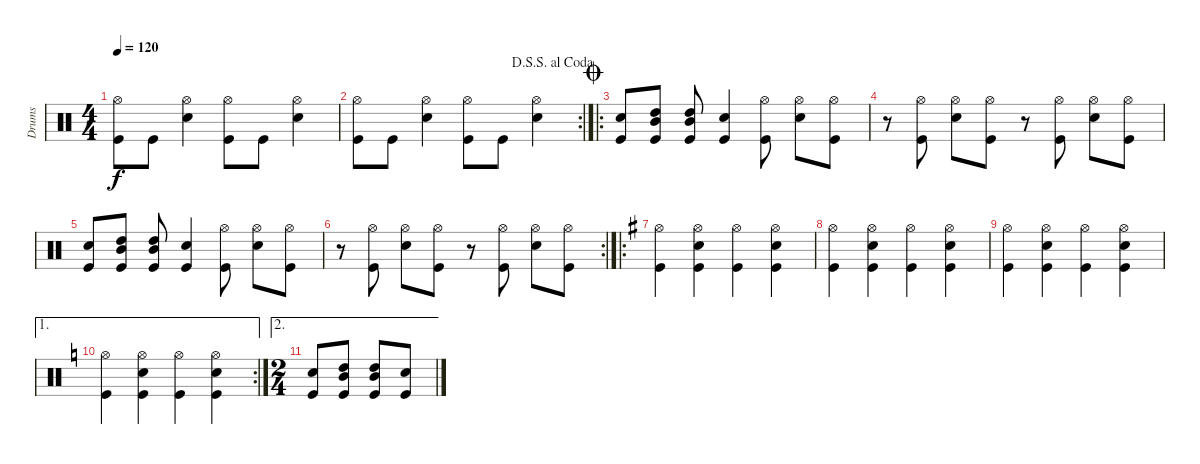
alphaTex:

\track ("Drums" "Drums") {instrument percussion}
\staff {score}
\articulation defaults
\ts (4 4)
\tempo 120
\clef neutral
\ks c
("Hi-Hat (open)" "Kick (hit)").8{dy f} "Kick (hit)".8 ("Snare (hit) 2" "Hi-Hat (open)").4 ("Hi-Hat (open)" "Kick (hit)").8 "Kick (hit)".8 ("Snare (hit) 2" "Hi-Hat (open)").4 |
\rc 2
\jump dalsegnosegnoalcoda
("Hi-Hat (open)" "Kick (hit)").8 "Kick (hit)".8 ("Snare (hit) 2" "Hi-Hat (open)").4 ("Hi-Hat (open)" "Kick (hit)").8 "Kick (hit)".8 ("Snare (hit) 2" "Hi-Hat (open)").4 |
\ro
\jump coda
("Kick (hit)" "Snare (hit) 2").8 ("High Tom (hit)" "Mid Tom (hit)" "Kick (hit)").8 ("High Tom (hit)" "Mid Tom (hit)" "Kick (hit)").8 ("Snare (hit) 2" "Kick (hit)").4 ("Kick (hit)" "Hi-Hat (open)").8 ("Snare (hit) 2" "Hi-Hat (open)").8 ("Kick (hit)" "Hi-Hat (open)").8 |
r.8 ("Kick (hit)" "Hi-Hat (open)").8 ("Snare (hit) 2" "Hi-Hat (open)").8 ("Kick (hit)" "Hi-Hat (open)").8 r.8 ("Kick (hit)" "Hi-Hat (open)").8 ("Snare (hit) 2" "Hi-Hat (open)").8 ("Kick (hit)" "Hi-Hat (open)").8 |
("Kick (hit)" "Snare (hit) 2").8 ("High Tom (hit)" "Mid Tom (hit)" "Kick (hit)").8 ("High Tom (hit)" "Mid Tom (hit)" "Kick (hit)").8 ("Snare (hit) 2" "Kick (hit)").4 ("Kick (hit)" "Hi-Hat (open)").8 ("Snare (hit) 2" "Hi-Hat (open)").8 ("Kick (hit)" "Hi-Hat (open)").8 |
\rc 2
r.8 ("Kick (hit)" "Hi-Hat (open)").8 ("Snare (hit) 2" "Hi-Hat (open)").8 ("Kick (hit)" "Hi-Hat (open)").8 r.8 ("Kick (hit)" "Hi-Hat (open)").8 ("Snare (hit) 2" "Hi-Hat (open)").8 ("Kick (hit)" "Hi-Hat (open)").8 |
\ro
\ks g
("Hi-Hat (open)" "Kick (hit)").4 ("Snare (hit) 2" "Kick (hit)" "Hi-Hat (open)").4 ("Hi-Hat (open)" "Kick (hit)").4 ("Snare (hit) 2" "Kick (hit)" "Hi-Hat (open)").4 |
("Hi-Hat (open)" "Kick (hit)").4 ("Snare (hit) 2" "Kick (hit)" "Hi-Hat (open)").4 ("Hi-Hat (open)" "Kick (hit)").4 ("Snare (hit) 2" "Kick (hit)" "Hi-Hat (open)").4 |
("Hi-Hat (open)" "Kick (hit)").4 ("Snare (hit) 2" "Kick (hit)" "Hi-Hat (open)").4 ("Hi-Hat (open)" "Kick (hit)").4 ("Snare (hit) 2" "Kick (hit)" "Hi-Hat (open)").4 |
\ae 1
\rc 2
\ks c
("Hi-Hat (open)" "Kick (hit)").4 ("Snare (hit) 2" "Kick (hit)" "Hi-Hat (open)").4 ("Hi-Hat (open)" "Kick (hit)").4 ("Snare (hit) 2" "Kick (hit)" "Hi-Hat (open)").4 |
\ae 2
\ts (2 4)
("Kick (hit)" "Snare (hit) 2").8 ("High Tom (hit)" "Mid Tom (hit)" "Kick (hit)").8 ("High Tom (hit)" "Mid Tom (hit)" "Kick (hit)").8 ("Snare (hit) 2" "Kick (hit)").8
